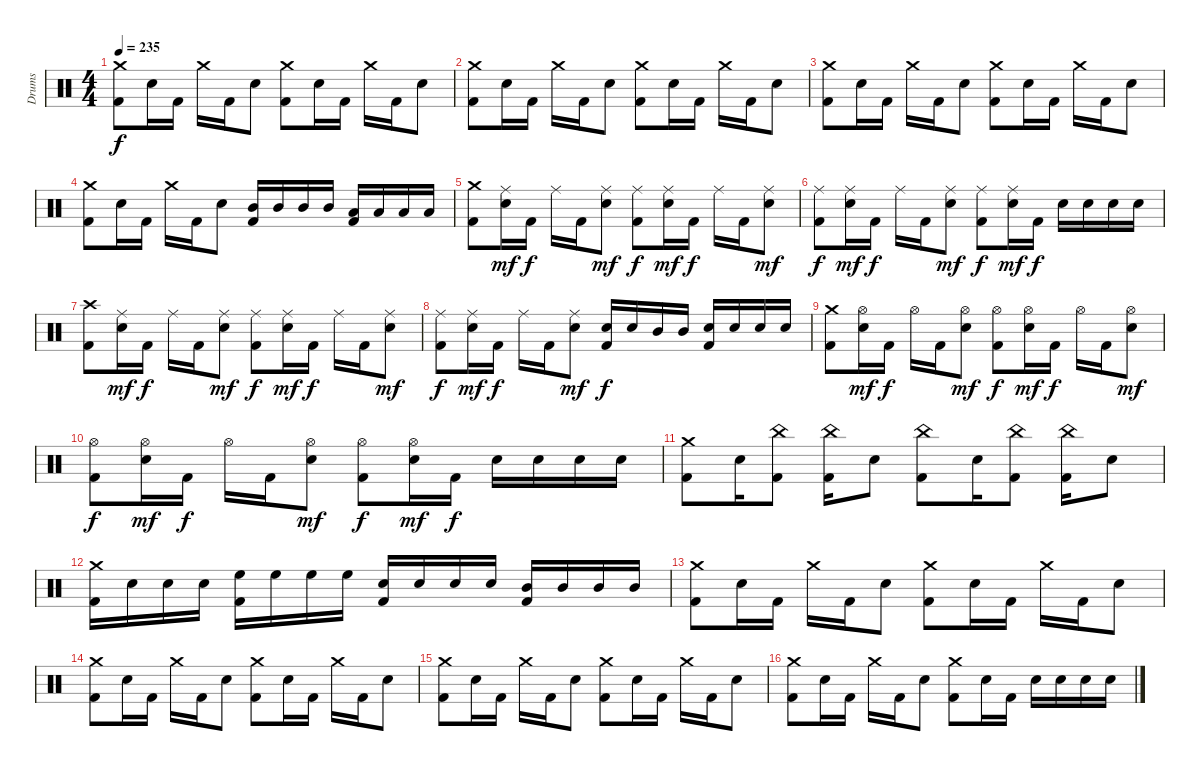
\track ("Drums" "Drums") {instrument percussion}
\staff {score}
\articulation defaults
\ts (4 4)
\tempo 235
\clef neutral
\ks c
("Crash medium (hit)" "Kick (hit) 2").8{dy f} "Electric Snare (hit)".16 "Kick (hit) 2".16 "Crash medium (hit)".16 "Kick (hit) 2".16 "Electric Snare (hit)".8 ("Crash medium (hit)" "Kick (hit) 2").8 "Electric Snare (hit)".16 "Kick (hit) 2".16 "Crash medium (hit)".16 "Kick (hit) 2".16 "Electric Snare (hit)".8 |
("Crash medium (hit)" "Kick (hit) 2").8 "Electric Snare (hit)".16 "Kick (hit) 2".16 "Crash medium (hit)".16 "Kick (hit) 2".16 "Electric Snare (hit)".8 ("Crash medium (hit)" "Kick (hit) 2").8 "Electric Snare (hit)".16 "Kick (hit) 2".16 "Crash medium (hit)".16 "Kick (hit) 2".16 "Electric Snare (hit)".8 |
("Crash medium (hit)" "Kick (hit) 2").8 "Electric Snare (hit)".16 "Kick (hit) 2".16 "Crash medium (hit)".16 "Kick (hit) 2".16 "Electric Snare (hit)".8 ("Crash medium (hit)" "Kick (hit) 2").8 "Electric Snare (hit)".16 "Kick (hit) 2".16 "Crash medium (hit)".16 "Kick (hit) 2".16 "Electric Snare (hit)".8 |
("Crash medium (hit)" "Kick (hit) 2").8 "Electric Snare (hit)".16 "Kick (hit) 2".16 "Crash medium (hit)".16 "Kick (hit) 2".16 "Electric Snare (hit)".8 ("Mid Tom (hit)" "Kick (hit) 2").16 "Mid Tom (hit)".16 "Mid Tom (hit)".16 "Mid Tom (hit)".16 ("Low Tom (hit)" "Kick (hit) 2").16 "Low Tom (hit)".16 "Low Tom (hit)".16 "Low Tom (hit)".16 |
("Crash medium (hit)" "Kick (hit) 2").8 ("Ride (middle)" "Electric Snare (hit)").16{dy mf} "Kick (hit) 2".16{dy f} "Ride (middle)".16 "Kick (hit) 2".16 ("Ride (middle)" "Electric Snare (hit)").8{dy mf} ("Ride (middle)" "Kick (hit) 2").8{dy f} ("Ride (middle)" "Electric Snare (hit)").16{dy mf} "Kick (hit) 2".16{dy f} "Ride (middle)".16 "Kick (hit) 2".16 ("Ride (middle)" "Electric Snare (hit)").8{dy mf} |
("Ride (middle)" "Kick (hit) 2").8{dy f} ("Ride (middle)" "Electric Snare (hit)").16{dy mf} "Kick (hit) 2".16{dy f} "Ride (middle)".16 "Kick (hit) 2".16 ("Ride (middle)" "Electric Snare (hit)").8{dy mf} ("Ride (middle)" "Kick (hit) 2").8{dy f} ("Ride (middle)" "Electric Snare (hit)").16{dy mf} "Kick (hit) 2".16{dy f} "Electric Snare (hit)".16 "Electric Snare (hit)".16 "Electric Snare (hit)".16 "Electric Snare (hit)".16 |
("Crash high (hit)" "Kick (hit) 2").8 ("Ride (middle)" "Electric Snare (hit)").16{dy mf} "Kick (hit) 2".16{dy f} "Ride (middle)".16 "Kick (hit) 2".16 ("Ride (middle)" "Electric Snare (hit)").8{dy mf} ("Ride (middle)" "Kick (hit) 2").8{dy f} ("Ride (middle)" "Electric Snare (hit)").16{dy mf} "Kick (hit) 2".16{dy f} "Ride (middle)".16 "Kick (hit) 2".16 ("Ride (middle)" "Electric Snare (hit)").8{dy mf} |
("Ride (middle)" "Kick (hit) 2").8{dy f} ("Ride (middle)" "Electric Snare (hit)").16{dy mf} "Kick (hit) 2".16{dy f} "Ride (middle)".16 "Kick (hit) 2".16 ("Ride (middle)" "Electric Snare (hit)").8{dy mf} ("Electric Snare (hit)" "Kick (hit) 2").16{dy f} "Electric Snare (hit)".16 "Mid Tom (hit)".16 "Mid Tom (hit)".16 ("Electric Snare (hit)" "Kick (hit) 2").16 "Electric Snare (hit)".16 "Electric Snare (hit)".16 "Electric Snare (hit)".16 |
("Crash medium (hit)" "Kick (hit) 2").8 ("Hi-Hat (open)" "Electric Snare (hit)").16{dy mf} "Kick (hit) 2".16{dy f} "Hi-Hat (open)".16 "Kick (hit) 2".16 ("Hi-Hat (open)" "Electric Snare (hit)").8{dy mf} ("Hi-Hat (open)" "Kick (hit) 2").8{dy f} ("Hi-Hat (open)" "Electric Snare (hit)").16{dy mf} "Kick (hit) 2".16{dy f} "Hi-Hat (open)".16 "Kick (hit) 2".16 ("Hi-Hat (open)" "Electric Snare (hit)").8{dy mf} |
("Hi-Hat (open)" "Kick (hit) 2").8{dy f} ("Hi-Hat (open)" "Electric Snare (hit)").16{dy mf} "Kick (hit) 2".16{dy f} "Hi-Hat (open)".16 "Kick (hit) 2".16 ("Hi-Hat (open)" "Electric Snare (hit)").8{dy mf} ("Hi-Hat (open)" "Kick (hit) 2").8{dy f} ("Hi-Hat (open)" "Electric Snare (hit)").16{dy mf} "Kick (hit) 2".16{dy f} "Electric Snare (hit)".16 "Electric Snare (hit)".16 "Electric Snare (hit)".16 "Electric Snare (hit)".16 |
("Crash medium (hit)" "Kick (hit) 2").8 "Electric Snare (hit)".16 ("China (hit)" "Kick (hit) 2").8 ("China (hit)" "Kick (hit) 2").16 "Electric Snare (hit)".8 ("China (hit)" "Kick (hit) 2").8 "Electric Snare (hit)".16 ("China (hit)" "Kick (hit) 2").8 ("China (hit)" "Kick (hit) 2").16 "Electric Snare (hit)".8 |
("Crash medium (hit)" "Kick (hit) 2").16 "Electric Snare (hit)".16 "Electric Snare (hit)".16 "Electric Snare (hit)".16 ("High Floor Tom (hit)" "Kick (hit) 2").16 "High Floor Tom (hit)".16 "High Floor Tom (hit)".16 "High Floor Tom (hit)".16 ("Electric Snare (hit)" "Kick (hit) 2").16 "Electric Snare (hit)".16 "Electric Snare (hit)".16 "Electric Snare (hit)".16 ("Mid Tom (hit)" "Kick (hit) 2").16 "Mid Tom (hit)".16 "Mid Tom (hit)".16 "Mid Tom (hit)".16 |
("Crash medium (hit)" "Kick (hit) 2").8 "Electric Snare (hit)".16 "Kick (hit) 2".16 "Crash medium (hit)".16 "Kick (hit) 2".16 "Electric Snare (hit)".8 ("Crash medium (hit)" "Kick (hit) 2").8 "Electric Snare (hit)".16 "Kick (hit) 2".16 "Crash medium (hit)".16 "Kick (hit) 2".16 "Electric Snare (hit)".8 |
("Crash medium (hit)" "Kick (hit) 2").8 "Electric Snare (hit)".16 "Kick (hit) 2".16 "Crash medium (hit)".16 "Kick (hit) 2".16 "Electric Snare (hit)".8 ("Crash medium (hit)" "Kick (hit) 2").8 "Electric Snare (hit)".16 "Kick (hit) 2".16 "Crash medium (hit)".16 "Kick (hit) 2".16 "Electric Snare (hit)".8 |
("Crash medium (hit)" "Kick (hit) 2").8 "Electric Snare (hit)".16 "Kick (hit) 2".16 "Crash medium (hit)".16 "Kick (hit) 2".16 "Electric Snare (hit)".8 ("Crash medium (hit)" "Kick (hit) 2").8 "Electric Snare (hit)".16 "Kick (hit) 2".16 "Crash medium (hit)".16 "Kick (hit) 2".16 "Electric Snare (hit)".8 |
("Crash medium (hit)" "Kick (hit) 2").8 "Electric Snare (hit)".16 "Kick (hit) 2".16 "Crash medium (hit)".16 "Kick (hit) 2".16 "Electric Snare (hit)".8 ("Crash medium (hit)" "Kick (hit) 2").8 "Electric Snare (hit)".16 "Kick (hit) 2".16 "Electric Snare (hit)".16 "Electric Snare (hit)".16 "Electric Snare (hit)".16 "Electric Snare (hit)".16
